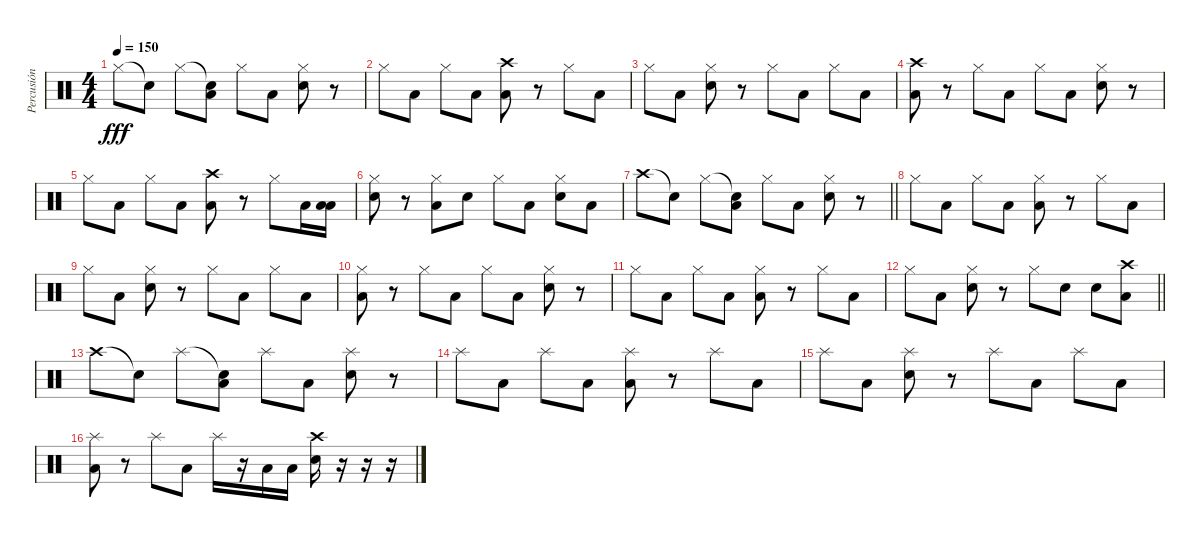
\track ("Percusión" "Percusión") {instrument percussion}
\staff {score}
\articulation defaults
\ts (4 4)
\tempo 150
\clef neutral
\ks c "Hi-Hat (closed)".8{dy fff} "Snare (hit)"{t}.8 "Hi-Hat (closed)".8
("Snare (hit)"{t} "Low Tom (hit)").8 "Hi-Hat (closed)".8 "Low Tom (hit)".8 ("Hi-Hat (closed)" "Snare (hit) 2").8 r.8 |
"Hi-Hat (closed)".8 "Low Tom (hit)".8 "Hi-Hat (closed)".8 "Low Tom (hit)".8 ("Crash high (hit)" "Low Tom (hit)").8 r.8 "Hi-Hat (closed)".8 "Low Tom (hit)".8 |
"Hi-Hat (closed)".8 "Low Tom (hit)".8 ("Hi-Hat (closed)" "Snare (hit) 2").8 r.8 "Hi-Hat (closed)".8 "Low Tom (hit)".8 "Hi-Hat (closed)".8 "Low Tom (hit)".8 |
("Crash high (hit)" "Low Tom (hit)").8 r.8 "Hi-Hat (closed)".8 "Low Tom (hit)".8 "Hi-Hat (closed)".8 "Low Tom (hit)".8 ("Hi-Hat (closed)" "Snare (hit) 2").8 r.8 |
"Hi-Hat (closed)".8 "Low Tom (hit)".8 "Hi-Hat (closed)".8 "Low Tom (hit)".8 ("Crash high (hit)" "Low Tom (hit)").8 r.8 "Hi-Hat (closed)".8 "Low Floor Tom (hit)".16 ("Low Floor Tom (hit)" "Low Tom (hit)").16 |
("Hi-Hat (closed)" "Snare (hit) 2").8 r.8 ("Hi-Hat (closed)" "Low Tom (hit)").8 "Snare (hit) 2".8 "Hi-Hat (closed)".8 "Low Tom (hit)".8 ("Hi-Hat (closed)" "Snare (hit) 2").8 "Low Tom (hit)".8 |
\barLineRight lightlight "Crash high (hit)".8 "Snare (hit)"{t}.8 "Hi-Hat (closed)".8
("Snare (hit)"{t} "Low Tom (hit)").8 "Hi-Hat (closed)".8 "Low Tom (hit)".8 ("Hi-Hat (closed)" "Snare (hit) 2").8 r.8 |
"Hi-Hat (closed)".8 "Low Tom (hit)".8 "Hi-Hat (closed)".8 "Low Tom (hit)".8 ("Hi-Hat (closed)" "Low Tom (hit)").8 r.8 "Hi-Hat (closed)".8 "Low Tom (hit)".8 |
"Hi-Hat (closed)".8 "Low Tom (hit)".8 ("Hi-Hat (closed)" "Snare (hit) 2").8 r.8 "Hi-Hat (closed)".8 "Low Tom (hit)".8 "Hi-Hat (closed)".8 "Low Tom (hit)".8 |
("Hi-Hat (closed)" "Low Tom (hit)").8 r.8 "Hi-Hat (closed)".8 "Low Tom (hit)".8 "Hi-Hat (closed)".8 "Low Tom (hit)".8 ("Hi-Hat (closed)" "Snare (hit) 2").8 r.8 |
"Hi-Hat (closed)".8 "Low Tom (hit)".8 "Hi-Hat (closed)".8 "Low Tom (hit)".8 ("Hi-Hat (closed)" "Low Tom (hit)").8 r.8 "Hi-Hat (closed)".8 "Low Tom (hit)".8 |
\barLineRight lightlight "Hi-Hat (closed)".8 "Low Tom (hit)".8
("Hi-Hat (closed)" "Snare (hit) 2").8 r.8 "Hi-Hat (closed)".8 "Snare (hit) 2".8 "Snare (hit) 2".8 ("Crash high (hit)" "Low Tom (hit)").8 |
"Crash high (hit)".8 "Snare (hit)"{t}.8 "Splash (hit)".8 ("Snare (hit)"{t} "Low Tom (hit)").8 "Splash (hit)".8 "Low Tom (hit)".8 ("Splash (hit)" "Snare (hit) 2").8 r.8 |
"Splash (hit)".8 "Low Tom (hit)".8 "Splash (hit)".8 "Low Tom (hit)".8 ("Splash (hit)" "Low Tom (hit)").8 r.8 "Splash (hit)".8 "Low Tom (hit)".8 |
"Splash (hit)".8 "Low Tom (hit)".8 ("Splash (hit)" "Snare (hit) 2").8 r.8 "Splash (hit)".8 "Low Tom (hit)".8 "Splash (hit)".8 "Low Tom (hit)".8 |
("Splash (hit)" "Low Tom (hit)").8 r.8 "Splash (hit)".8 "Low Tom (hit)".8 "Splash (hit)".16 r.16 "Low Tom (hit)".16 "Low Tom (hit)".16 ("Crash high (hit)" "Snare (hit) 2").16 r.16 r.16 r.16
